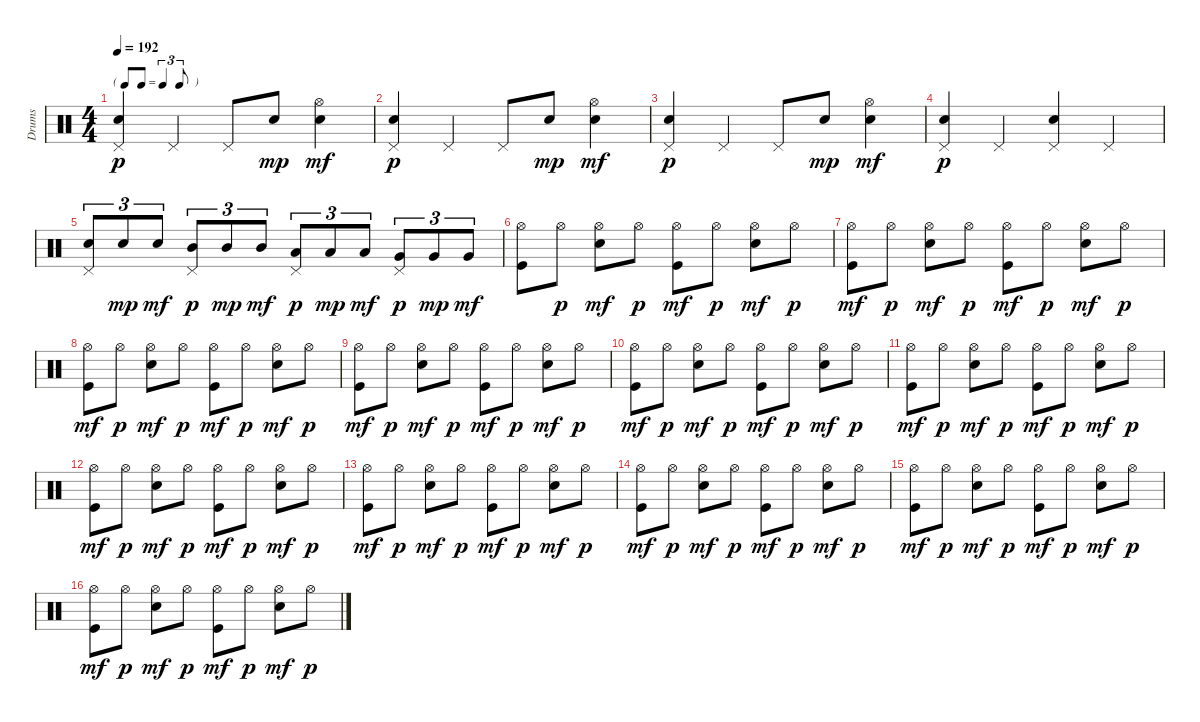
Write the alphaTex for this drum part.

\track ("Drums" "Drums") {instrument percussion}
\staff {score}
\articulation defaults
\ts (4 4)
\tf triplet8th
\tempo 192
\clef neutral
\ks c
("Pedal Hi-Hat (hit)" "Snare (hit) 2").4{dy p} "Pedal Hi-Hat (hit)".4 "Pedal Hi-Hat (hit)".8 "Snare (hit) 2".8{dy mp} ("Hi-Hat (open)" "Snare (hit) 2").4{dy mf} |
("Pedal Hi-Hat (hit)" "Snare (hit) 2").4{dy p} "Pedal Hi-Hat (hit)".4 "Pedal Hi-Hat (hit)".8 "Snare (hit) 2".8{dy mp} ("Hi-Hat (open)" "Snare (hit) 2").4{dy mf} |
("Pedal Hi-Hat (hit)" "Snare (hit) 2").4{dy p} "Pedal Hi-Hat (hit)".4 "Pedal Hi-Hat (hit)".8 "Snare (hit) 2".8{dy mp} ("Hi-Hat (open)" "Snare (hit) 2").4{dy mf} |
("Pedal Hi-Hat (hit)" "Snare (hit) 2").4{dy p} "Pedal Hi-Hat (hit)".4 ("Pedal Hi-Hat (hit)" "Snare (hit) 2").4 "Pedal Hi-Hat (hit)".4 |
("Pedal Hi-Hat (hit)" "Snare (hit) 2").8{tu (3 2)} "Snare (hit) 2".8{tu (3 2) dy mp} "Snare (hit) 2".8{tu (3 2) dy mf} ("Pedal Hi-Hat (hit)" "Mid Tom (hit)").8{tu (3 2) dy p} "Mid Tom (hit)".8{tu (3 2) dy mp} "Mid Tom (hit)".8{tu (3 2) dy mf} ("Pedal Hi-Hat (hit)" "Low Tom (hit)").8{tu (3 2) dy p} "Low Tom (hit)".8{tu (3 2) dy mp} "Low Tom (hit)".8{tu (3 2) dy mf} ("Pedal Hi-Hat (hit)" "Very Low Tom (hit)").8{tu (3 2) dy p} "Very Low Tom (hit)".8{tu (3 2) dy mp} "Very Low Tom (hit)".8{tu (3 2) dy mf} |
("Hi-Hat (open)" "Kick (hit)").8 "Hi-Hat (open)".8{dy p} ("Hi-Hat (open)" "Snare (hit) 2").8{dy mf} "Hi-Hat (open)".8{dy p} ("Hi-Hat (open)" "Kick (hit)").8{dy mf} "Hi-Hat (open)".8{dy p} ("Hi-Hat (open)" "Snare (hit) 2").8{dy mf} "Hi-Hat (open)".8{dy p} |
("Hi-Hat (open)" "Kick (hit)").8{dy mf} "Hi-Hat (open)".8{dy p} ("Hi-Hat (open)" "Snare (hit) 2").8{dy mf} "Hi-Hat (open)".8{dy p} ("Hi-Hat (open)" "Kick (hit)").8{dy mf} "Hi-Hat (open)".8{dy p} ("Hi-Hat (open)" "Snare (hit) 2").8{dy mf} "Hi-Hat (open)".8{dy p} |
("Hi-Hat (open)" "Kick (hit)").8{dy mf} "Hi-Hat (open)".8{dy p} ("Hi-Hat (open)" "Snare (hit) 2").8{dy mf} "Hi-Hat (open)".8{dy p} ("Hi-Hat (open)" "Kick (hit)").8{dy mf} "Hi-Hat (open)".8{dy p} ("Hi-Hat (open)" "Snare (hit) 2").8{dy mf} "Hi-Hat (open)".8{dy p} |
("Hi-Hat (open)" "Kick (hit)").8{dy mf} "Hi-Hat (open)".8{dy p} ("Hi-Hat (open)" "Snare (hit) 2").8{dy mf} "Hi-Hat (open)".8{dy p} ("Hi-Hat (open)" "Kick (hit)").8{dy mf} "Hi-Hat (open)".8{dy p} ("Hi-Hat (open)" "Snare (hit) 2").8{dy mf} "Hi-Hat (open)".8{dy p} |
("Hi-Hat (open)" "Kick (hit)").8{dy mf} "Hi-Hat (open)".8{dy p} ("Hi-Hat (open)" "Snare (hit) 2").8{dy mf} "Hi-Hat (open)".8{dy p} ("Hi-Hat (open)" "Kick (hit)").8{dy mf} "Hi-Hat (open)".8{dy p} ("Hi-Hat (open)" "Snare (hit) 2").8{dy mf} "Hi-Hat (open)".8{dy p} |
("Hi-Hat (open)" "Kick (hit)").8{dy mf} "Hi-Hat (open)".8{dy p} ("Hi-Hat (open)" "Snare (hit) 2").8{dy mf} "Hi-Hat (open)".8{dy p} ("Hi-Hat (open)" "Kick (hit)").8{dy mf} "Hi-Hat (open)".8{dy p} ("Hi-Hat (open)" "Snare (hit) 2").8{dy mf} "Hi-Hat (open)".8{dy p} |
("Hi-Hat (open)" "Kick (hit)").8{dy mf} "Hi-Hat (open)".8{dy p} ("Hi-Hat (open)" "Snare (hit) 2").8{dy mf} "Hi-Hat (open)".8{dy p} ("Hi-Hat (open)" "Kick (hit)").8{dy mf} "Hi-Hat (open)".8{dy p} ("Hi-Hat (open)" "Snare (hit) 2").8{dy mf} "Hi-Hat (open)".8{dy p} |
("Hi-Hat (open)" "Kick (hit)").8{dy mf} "Hi-Hat (open)".8{dy p} ("Hi-Hat (open)" "Snare (hit) 2").8{dy mf} "Hi-Hat (open)".8{dy p} ("Hi-Hat (open)" "Kick (hit)").8{dy mf} "Hi-Hat (open)".8{dy p} ("Hi-Hat (open)" "Snare (hit) 2").8{dy mf} "Hi-Hat (open)".8{dy p} |
("Hi-Hat (open)" "Kick (hit)").8{dy mf} "Hi-Hat (open)".8{dy p} ("Hi-Hat (open)" "Snare (hit) 2").8{dy mf} "Hi-Hat (open)".8{dy p} ("Hi-Hat (open)" "Kick (hit)").8{dy mf} "Hi-Hat (open)".8{dy p} ("Hi-Hat (open)" "Snare (hit) 2").8{dy mf} "Hi-Hat (open)".8{dy p} |
("Hi-Hat (open)" "Kick (hit)").8{dy mf} "Hi-Hat (open)".8{dy p} ("Hi-Hat (open)" "Snare (hit) 2").8{dy mf} "Hi-Hat (open)".8{dy p} ("Hi-Hat (open)" "Kick (hit)").8{dy mf} "Hi-Hat (open)".8{dy p} ("Hi-Hat (open)" "Snare (hit) 2").8{dy mf} "Hi-Hat (open)".8{dy p} |
("Hi-Hat (open)" "Kick (hit)").8{dy mf} "Hi-Hat (open)".8{dy p} ("Hi-Hat (open)" "Snare (hit) 2").8{dy mf} "Hi-Hat (open)".8{dy p} ("Hi-Hat (open)" "Kick (hit)").8{dy mf} "Hi-Hat (open)".8{dy p} ("Hi-Hat (open)" "Snare (hit) 2").8{dy mf} "Hi-Hat (open)".8{dy p}
